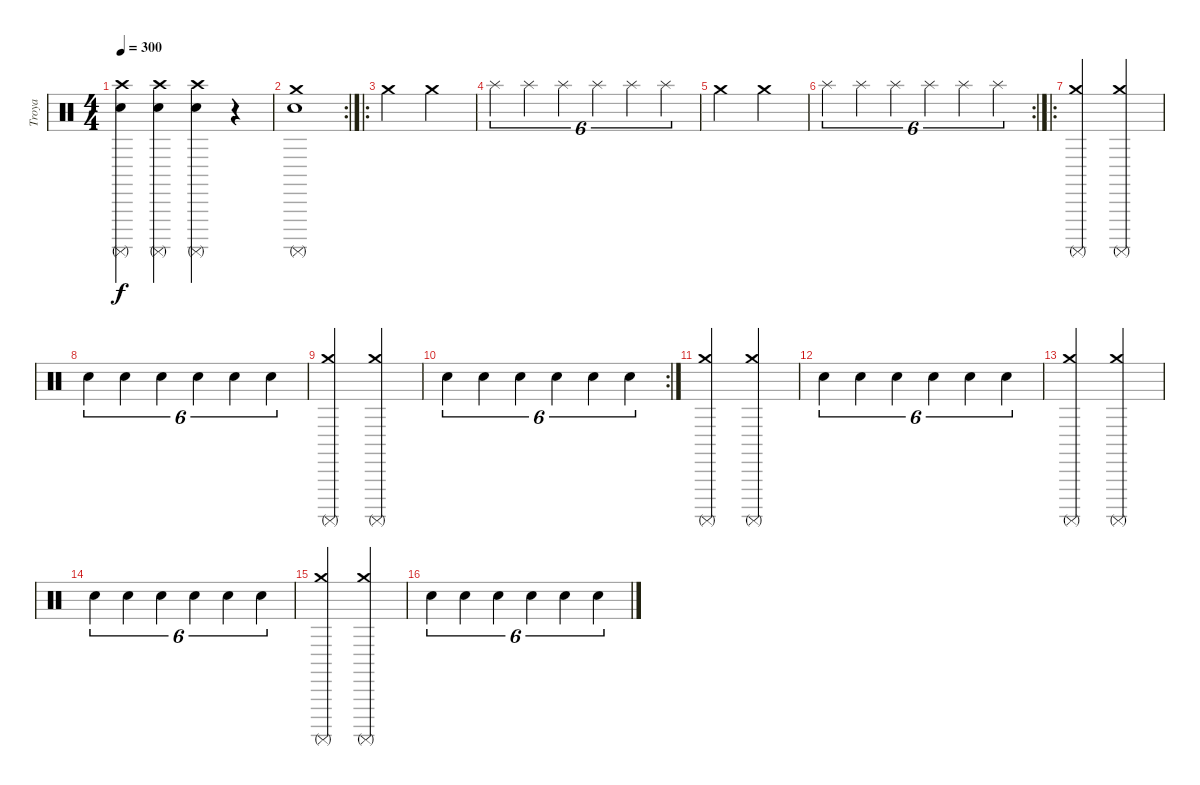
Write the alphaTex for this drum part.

\track ("Troya" "Troya") {instrument percussion}
\staff {score}
\articulation defaults
\ts (4 4)
\tempo 300
\clef neutral
\ks c
("Crash high (hit)" "Surdo (mute)" "Electric Snare (hit)").4{dy f} ("Crash high (hit)" "Surdo (mute)" "Electric Snare (hit)").4 ("Crash high (hit)" "Surdo (mute)" "Electric Snare (hit)").4 r.4 |
\rc 2
("Crash medium (hit)" "Surdo (mute)" "Electric Snare (hit)").1 |
\ro "Crash medium (hit)".2 "Crash medium (hit)".2
|
"Splash (hit)".4{tu (6 4)} "Splash (hit)".4{tu (6 4)} "Splash (hit)".4{tu (6 4)} "Splash (hit)".4{tu (6 4)} "Splash (hit)".4{tu (6 4)} "Splash (hit)".4{tu (6 4)} |
"Crash medium (hit)".2 "Crash medium (hit)".2 |
\rc 2 "Splash (hit)".4{tu (6 4)} "Splash (hit)".4{tu (6 4)} "Splash (hit)".4{tu (6 4)} "Splash (hit)".4{tu (6 4)} "Splash (hit)".4{tu (6 4)} "Splash (hit)".4{tu (6 4)}
|
\ro
("Crash medium (hit)" "Surdo (mute)").2 ("Crash medium (hit)" "Surdo (mute)").2 |
"Electric Snare (hit)".4{tu (6 4)} "Electric Snare (hit)".4{tu (6 4)} "Electric Snare (hit)".4{tu (6 4)} "Electric Snare (hit)".4{tu (6 4)} "Electric Snare (hit)".4{tu (6 4)} "Electric Snare (hit)".4{tu (6 4)} |
("Crash medium (hit)" "Surdo (mute)").2 ("Crash medium (hit)" "Surdo (mute)").2 |
\rc 2 "Electric Snare (hit)".4{tu (6 4)} "Electric Snare (hit)".4{tu (6 4)} "Electric Snare (hit)".4{tu (6 4)} "Electric Snare (hit)".4{tu (6 4)} "Electric Snare (hit)".4{tu (6 4)} "Electric Snare (hit)".4{tu (6 4)}
|
("Crash medium (hit)" "Surdo (mute)").2 ("Crash medium (hit)" "Surdo (mute)").2 |
"Electric Snare (hit)".4{tu (6 4)} "Electric Snare (hit)".4{tu (6 4)} "Electric Snare (hit)".4{tu (6 4)} "Electric Snare (hit)".4{tu (6 4)} "Electric Snare (hit)".4{tu (6 4)} "Electric Snare (hit)".4{tu (6 4)} |
("Crash medium (hit)" "Surdo (mute)").2 ("Crash medium (hit)" "Surdo (mute)").2 |
"Electric Snare (hit)".4{tu (6 4)} "Electric Snare (hit)".4{tu (6 4)} "Electric Snare (hit)".4{tu (6 4)} "Electric Snare (hit)".4{tu (6 4)} "Electric Snare (hit)".4{tu (6 4)} "Electric Snare (hit)".4{tu (6 4)} |
("Crash medium (hit)" "Surdo (mute)").2 ("Crash medium (hit)" "Surdo (mute)").2 |
"Electric Snare (hit)".4{tu (6 4)} "Electric Snare (hit)".4{tu (6 4)} "Electric Snare (hit)".4{tu (6 4)} "Electric Snare (hit)".4{tu (6 4)} "Electric Snare (hit)".4{tu (6 4)} "Electric Snare (hit)".4{tu (6 4)}
